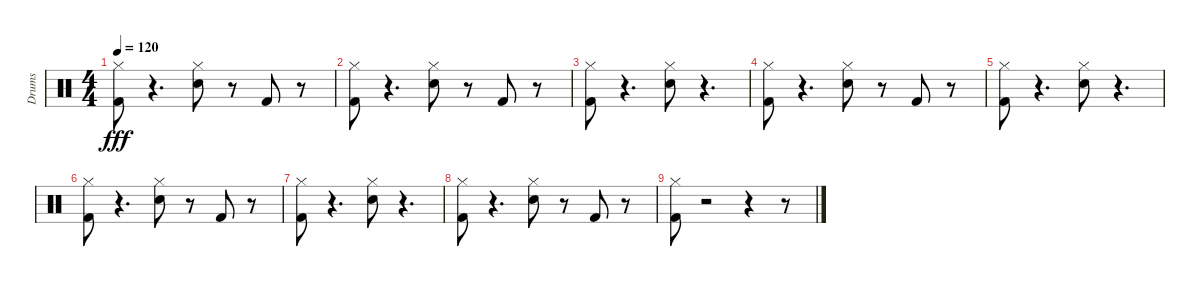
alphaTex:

\track ("Drums" "Drums") {instrument percussion}
\staff {score}
\articulation defaults
\ts (4 4)
\tempo 120
\clef neutral
\ks c
("Kick (hit) 2" "Hi-Hat (closed)").8{dy fff} r.4{d} ("Electric Snare (hit)" "Hi-Hat (closed)").8 r.8 "Kick (hit) 2".8 r.8 |
("Hi-Hat (closed)" "Kick (hit) 2").8 r.4{d} ("Electric Snare (hit)" "Hi-Hat (closed)").8 r.8 "Kick (hit) 2".8 r.8 |
("Kick (hit) 2" "Hi-Hat (closed)").8 r.4{d} ("Electric Snare (hit)" "Hi-Hat (closed)").8 r.4{d} |
("Hi-Hat (closed)" "Kick (hit) 2").8 r.4{d} ("Electric Snare (hit)" "Hi-Hat (closed)").8 r.8 "Kick (hit) 2".8 r.8 |
("Kick (hit) 2" "Hi-Hat (closed)").8 r.4{d} ("Electric Snare (hit)" "Hi-Hat (closed)").8 r.4{d} |
("Hi-Hat (closed)" "Kick (hit) 2").8 r.4{d} ("Electric Snare (hit)" "Hi-Hat (closed)").8 r.8 "Kick (hit) 2".8 r.8 |
("Kick (hit) 2" "Hi-Hat (closed)").8 r.4{d} ("Electric Snare (hit)" "Hi-Hat (closed)").8 r.4{d} |
("Hi-Hat (closed)" "Kick (hit) 2").8 r.4{d} ("Electric Snare (hit)" "Hi-Hat (closed)").8 r.8 "Kick (hit) 2".8 r.8 |
("Kick (hit) 2" "Hi-Hat (closed)").8 r.2 r.4 r.8
